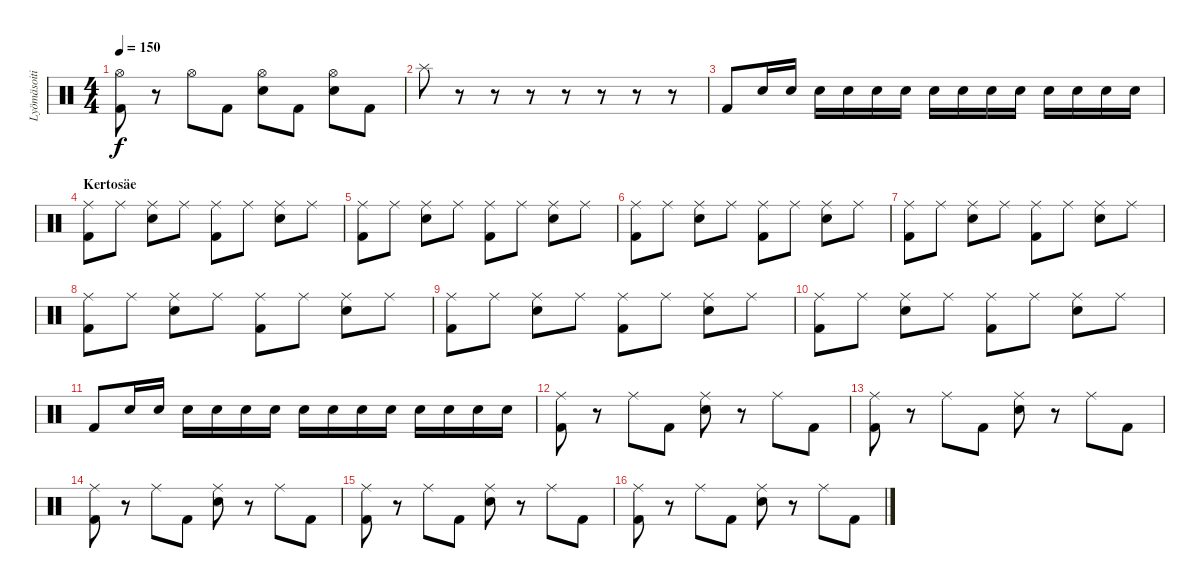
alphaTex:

\track ("Lyömäsoitin" "Lyömäsoiti") {instrument percussion}
\staff {score}
\articulation defaults
\ts (4 4)
\tempo 150
\clef neutral
\ks c
("Hi-Hat (open)" "Kick (hit) 2").8{dy f} r.8 "Hi-Hat (open)".8 "Kick (hit) 2".8 ("Hi-Hat (open)" "Electric Snare (hit)").8 "Kick (hit) 2".8 ("Hi-Hat (open)" "Electric Snare (hit)").8 "Kick (hit) 2".8 |
"Splash (hit)".8 r.8 r.8 r.8 r.8 r.8 r.8 r.8 |
"Kick (hit) 2".8 "Electric Snare (hit)".16 "Electric Snare (hit)".16 "Electric Snare (hit)".16 "Electric Snare (hit)".16 "Electric Snare (hit)".16 "Electric Snare (hit)".16 "Electric Snare (hit)".16 "Electric Snare (hit)".16 "Electric Snare (hit)".16 "Electric Snare (hit)".16 "Electric Snare (hit)".16 "Electric Snare (hit)".16 "Electric Snare (hit)".16 "Electric Snare (hit)".16 |
\section ("" "Kertosäe")
("Ride (middle)" "Kick (hit) 2").8 "Ride (middle)".8 ("Ride (middle)" "Electric Snare (hit)").8 "Ride (middle)".8 ("Ride (middle)" "Kick (hit) 2").8 "Ride (middle)".8 ("Ride (middle)" "Electric Snare (hit)").8 "Ride (middle)".8 |
("Ride (middle)" "Kick (hit) 2").8 "Ride (middle)".8 ("Ride (middle)" "Electric Snare (hit)").8 "Ride (middle)".8 ("Ride (middle)" "Kick (hit) 2").8 "Ride (middle)".8 ("Ride (middle)" "Electric Snare (hit)").8 "Ride (middle)".8 |
("Ride (middle)" "Kick (hit) 2").8 "Ride (middle)".8 ("Ride (middle)" "Electric Snare (hit)").8 "Ride (middle)".8 ("Ride (middle)" "Kick (hit) 2").8 "Ride (middle)".8 ("Ride (middle)" "Electric Snare (hit)").8 "Ride (middle)".8 |
("Ride (middle)" "Kick (hit) 2").8 "Ride (middle)".8 ("Ride (middle)" "Electric Snare (hit)").8 "Ride (middle)".8 ("Ride (middle)" "Kick (hit) 2").8 "Ride (middle)".8 ("Ride (middle)" "Electric Snare (hit)").8 "Ride (middle)".8 |
("Ride (middle)" "Kick (hit) 2").8 "Ride (middle)".8 ("Ride (middle)" "Electric Snare (hit)").8 "Ride (middle)".8 ("Ride (middle)" "Kick (hit) 2").8 "Ride (middle)".8 ("Ride (middle)" "Electric Snare (hit)").8 "Ride (middle)".8 |
("Ride (middle)" "Kick (hit) 2").8 "Ride (middle)".8 ("Ride (middle)" "Electric Snare (hit)").8 "Ride (middle)".8 ("Ride (middle)" "Kick (hit) 2").8 "Ride (middle)".8 ("Ride (middle)" "Electric Snare (hit)").8 "Ride (middle)".8 |
("Ride (middle)" "Kick (hit) 2").8 "Ride (middle)".8 ("Ride (middle)" "Electric Snare (hit)").8 "Ride (middle)".8 ("Ride (middle)" "Kick (hit) 2").8 "Ride (middle)".8 ("Ride (middle)" "Electric Snare (hit)").8 "Ride (middle)".8 |
"Kick (hit) 2".8 "Electric Snare (hit)".16 "Electric Snare (hit)".16 "Electric Snare (hit)".16 "Electric Snare (hit)".16 "Electric Snare (hit)".16 "Electric Snare (hit)".16 "Electric Snare (hit)".16 "Electric Snare (hit)".16 "Electric Snare (hit)".16 "Electric Snare (hit)".16 "Electric Snare (hit)".16 "Electric Snare (hit)".16 "Electric Snare (hit)".16 "Electric Snare (hit)".16 |
("Ride (middle)" "Kick (hit) 2").8 r.8 "Ride (middle)".8 "Kick (hit) 2".8 ("Ride (middle)" "Electric Snare (hit)").8 r.8 "Ride (middle)".8 "Kick (hit) 2".8 |
("Ride (middle)" "Kick (hit) 2").8 r.8 "Ride (middle)".8 "Kick (hit) 2".8 ("Ride (middle)" "Electric Snare (hit)").8 r.8 "Ride (middle)".8 "Kick (hit) 2".8 |
("Ride (middle)" "Kick (hit) 2").8 r.8 "Ride (middle)".8 "Kick (hit) 2".8 ("Ride (middle)" "Electric Snare (hit)").8 r.8 "Ride (middle)".8 "Kick (hit) 2".8 |
("Ride (middle)" "Kick (hit) 2").8 r.8 "Ride (middle)".8 "Kick (hit) 2".8 ("Ride (middle)" "Electric Snare (hit)").8 r.8 "Ride (middle)".8 "Kick (hit) 2".8 |
("Ride (middle)" "Kick (hit) 2").8 r.8 "Ride (middle)".8 "Kick (hit) 2".8 ("Ride (middle)" "Electric Snare (hit)").8 r.8 "Ride (middle)".8 "Kick (hit) 2".8
